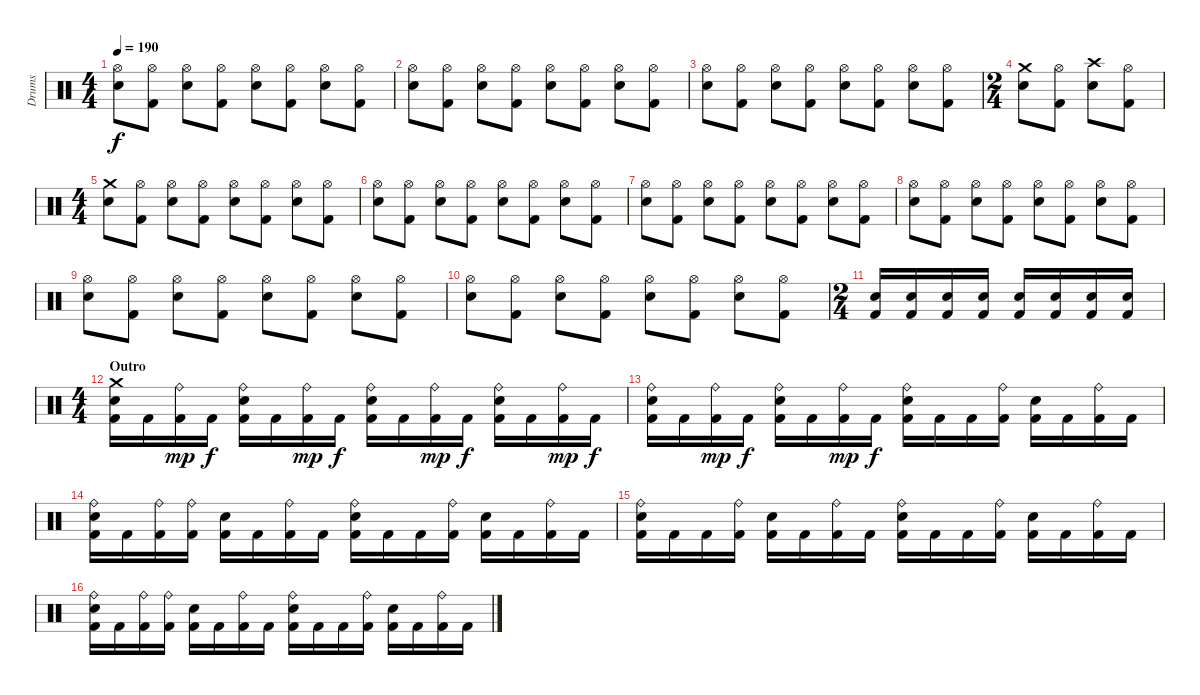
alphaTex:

\track ("Drums" "Drums") {instrument percussion}
\staff {score}
\articulation defaults
\ts (4 4)
\tempo 190
\clef neutral
\ks c
("Electric Snare (hit)" "Hi-Hat (open)").8{dy f} ("Kick (hit) 2" "Hi-Hat (open)").8 ("Electric Snare (hit)" "Hi-Hat (open)").8 ("Kick (hit) 2" "Hi-Hat (open)").8 ("Electric Snare (hit)" "Hi-Hat (open)").8 ("Kick (hit) 2" "Hi-Hat (open)").8 ("Electric Snare (hit)" "Hi-Hat (open)").8 ("Kick (hit) 2" "Hi-Hat (open)").8 |
("Electric Snare (hit)" "Hi-Hat (open)").8 ("Kick (hit) 2" "Hi-Hat (open)").8 ("Electric Snare (hit)" "Hi-Hat (open)").8 ("Kick (hit) 2" "Hi-Hat (open)").8 ("Electric Snare (hit)" "Hi-Hat (open)").8 ("Kick (hit) 2" "Hi-Hat (open)").8 ("Electric Snare (hit)" "Hi-Hat (open)").8 ("Kick (hit) 2" "Hi-Hat (open)").8 |
("Electric Snare (hit)" "Hi-Hat (open)").8 ("Kick (hit) 2" "Hi-Hat (open)").8 ("Electric Snare (hit)" "Hi-Hat (open)").8 ("Kick (hit) 2" "Hi-Hat (open)").8 ("Electric Snare (hit)" "Hi-Hat (open)").8 ("Kick (hit) 2" "Hi-Hat (open)").8 ("Electric Snare (hit)" "Hi-Hat (open)").8 ("Kick (hit) 2" "Hi-Hat (open)").8 |
\ts (2 4)
("Electric Snare (hit)" "Crash medium (hit)").8 ("Kick (hit) 2" "Hi-Hat (open)").8 ("Electric Snare (hit)" "Crash high (hit)").8 ("Kick (hit) 2" "Hi-Hat (open)").8 |
\ts (4 4)
("Electric Snare (hit)" "Crash medium (hit)").8 ("Kick (hit) 2" "Hi-Hat (open)").8 ("Electric Snare (hit)" "Hi-Hat (open)").8 ("Kick (hit) 2" "Hi-Hat (open)").8 ("Electric Snare (hit)" "Hi-Hat (open)").8 ("Kick (hit) 2" "Hi-Hat (open)").8 ("Electric Snare (hit)" "Hi-Hat (open)").8 ("Kick (hit) 2" "Hi-Hat (open)").8 |
("Electric Snare (hit)" "Hi-Hat (open)").8 ("Kick (hit) 2" "Hi-Hat (open)").8 ("Electric Snare (hit)" "Hi-Hat (open)").8 ("Kick (hit) 2" "Hi-Hat (open)").8 ("Electric Snare (hit)" "Hi-Hat (open)").8 ("Kick (hit) 2" "Hi-Hat (open)").8 ("Electric Snare (hit)" "Hi-Hat (open)").8 ("Kick (hit) 2" "Hi-Hat (open)").8 |
("Electric Snare (hit)" "Hi-Hat (open)").8 ("Kick (hit) 2" "Hi-Hat (open)").8 ("Electric Snare (hit)" "Hi-Hat (open)").8 ("Kick (hit) 2" "Hi-Hat (open)").8 ("Electric Snare (hit)" "Hi-Hat (open)").8 ("Kick (hit) 2" "Hi-Hat (open)").8 ("Electric Snare (hit)" "Hi-Hat (open)").8 ("Kick (hit) 2" "Hi-Hat (open)").8 |
("Electric Snare (hit)" "Hi-Hat (open)").8 ("Kick (hit) 2" "Hi-Hat (open)").8 ("Electric Snare (hit)" "Hi-Hat (open)").8 ("Kick (hit) 2" "Hi-Hat (open)").8 ("Electric Snare (hit)" "Hi-Hat (open)").8 ("Kick (hit) 2" "Hi-Hat (open)").8 ("Electric Snare (hit)" "Hi-Hat (open)").8 ("Kick (hit) 2" "Hi-Hat (open)").8 |
("Electric Snare (hit)" "Hi-Hat (open)").8 ("Kick (hit) 2" "Hi-Hat (open)").8 ("Electric Snare (hit)" "Hi-Hat (open)").8 ("Kick (hit) 2" "Hi-Hat (open)").8 ("Electric Snare (hit)" "Hi-Hat (open)").8 ("Kick (hit) 2" "Hi-Hat (open)").8 ("Electric Snare (hit)" "Hi-Hat (open)").8 ("Kick (hit) 2" "Hi-Hat (open)").8 |
("Electric Snare (hit)" "Hi-Hat (open)").8 ("Kick (hit) 2" "Hi-Hat (open)").8 ("Electric Snare (hit)" "Hi-Hat (open)").8 ("Kick (hit) 2" "Hi-Hat (open)").8 ("Electric Snare (hit)" "Hi-Hat (open)").8 ("Kick (hit) 2" "Hi-Hat (open)").8 ("Electric Snare (hit)" "Hi-Hat (open)").8 ("Kick (hit) 2" "Hi-Hat (open)").8 |
\ts (2 4)
("Kick (hit) 2" "Electric Snare (hit)").16 ("Kick (hit) 2" "Electric Snare (hit)").16 ("Kick (hit) 2" "Electric Snare (hit)").16 ("Kick (hit) 2" "Electric Snare (hit)").16 ("Kick (hit) 2" "Electric Snare (hit)").16 ("Kick (hit) 2" "Electric Snare (hit)").16 ("Kick (hit) 2" "Electric Snare (hit)").16 ("Kick (hit) 2" "Electric Snare (hit)").16 |
\ts (4 4)
\section ("" "Outro")
("Kick (hit) 2" "Electric Snare (hit)" "Crash medium (hit)").16 "Kick (hit) 2".16 ("Kick (hit) 2" "Ride (bell)").16{dy mp} "Kick (hit) 2".16{dy f} ("Kick (hit) 2" "Electric Snare (hit)" "Ride (bell)").16 "Kick (hit) 2".16 ("Kick (hit) 2" "Ride (bell)").16{dy mp} "Kick (hit) 2".16{dy f} ("Kick (hit) 2" "Electric Snare (hit)" "Ride (bell)").16 "Kick (hit) 2".16 ("Kick (hit) 2" "Ride (bell)").16{dy mp} "Kick (hit) 2".16{dy f} ("Kick (hit) 2" "Electric Snare (hit)" "Ride (bell)").16 "Kick (hit) 2".16 ("Kick (hit) 2" "Ride (bell)").16{dy mp} "Kick (hit) 2".16{dy f} |
("Kick (hit) 2" "Electric Snare (hit)" "Ride (bell)").16 "Kick (hit) 2".16 ("Kick (hit) 2" "Ride (bell)").16{dy mp} "Kick (hit) 2".16{dy f} ("Kick (hit) 2" "Electric Snare (hit)" "Ride (bell)").16 "Kick (hit) 2".16 ("Kick (hit) 2" "Ride (bell)").16{dy mp} "Kick (hit) 2".16{dy f} ("Kick (hit) 2" "Electric Snare (hit)" "Ride (bell)").16 "Kick (hit) 2".16 "Kick (hit) 2".16 ("Kick (hit) 2" "Ride (bell)").16 ("Kick (hit) 2" "Electric Snare (hit)").16 "Kick (hit) 2".16 ("Kick (hit) 2" "Ride (bell)").16 "Kick (hit) 2".16 |
("Kick (hit) 2" "Electric Snare (hit)" "Ride (bell)").16 "Kick (hit) 2".16 ("Kick (hit) 2" "Ride (bell)").16 ("Kick (hit) 2" "Ride (bell)").16 ("Kick (hit) 2" "Electric Snare (hit)").16 "Kick (hit) 2".16 ("Kick (hit) 2" "Ride (bell)").16 "Kick (hit) 2".16 ("Kick (hit) 2" "Electric Snare (hit)" "Ride (bell)").16 "Kick (hit) 2".16 "Kick (hit) 2".16 ("Kick (hit) 2" "Ride (bell)").16 ("Kick (hit) 2" "Electric Snare (hit)").16 "Kick (hit) 2".16 ("Kick (hit) 2" "Ride (bell)").16 "Kick (hit) 2".16 |
("Kick (hit) 2" "Electric Snare (hit)" "Ride (bell)").16 "Kick (hit) 2".16 "Kick (hit) 2".16 ("Kick (hit) 2" "Ride (bell)").16 ("Kick (hit) 2" "Electric Snare (hit)").16 "Kick (hit) 2".16 ("Kick (hit) 2" "Ride (bell)").16 "Kick (hit) 2".16 ("Kick (hit) 2" "Electric Snare (hit)" "Ride (bell)").16 "Kick (hit) 2".16 "Kick (hit) 2".16 ("Kick (hit) 2" "Ride (bell)").16 ("Kick (hit) 2" "Electric Snare (hit)").16 "Kick (hit) 2".16 ("Kick (hit) 2" "Ride (bell)").16 "Kick (hit) 2".16 |
("Kick (hit) 2" "Electric Snare (hit)" "Ride (bell)").16 "Kick (hit) 2".16 ("Kick (hit) 2" "Ride (bell)").16 ("Kick (hit) 2" "Ride (bell)").16 ("Kick (hit) 2" "Electric Snare (hit)").16 "Kick (hit) 2".16 ("Kick (hit) 2" "Ride (bell)").16 "Kick (hit) 2".16 ("Kick (hit) 2" "Electric Snare (hit)" "Ride (bell)").16 "Kick (hit) 2".16 "Kick (hit) 2".16 ("Kick (hit) 2" "Ride (bell)").16 ("Kick (hit) 2" "Electric Snare (hit)").16 "Kick (hit) 2".16 ("Kick (hit) 2" "Ride (bell)").16 "Kick (hit) 2".16
